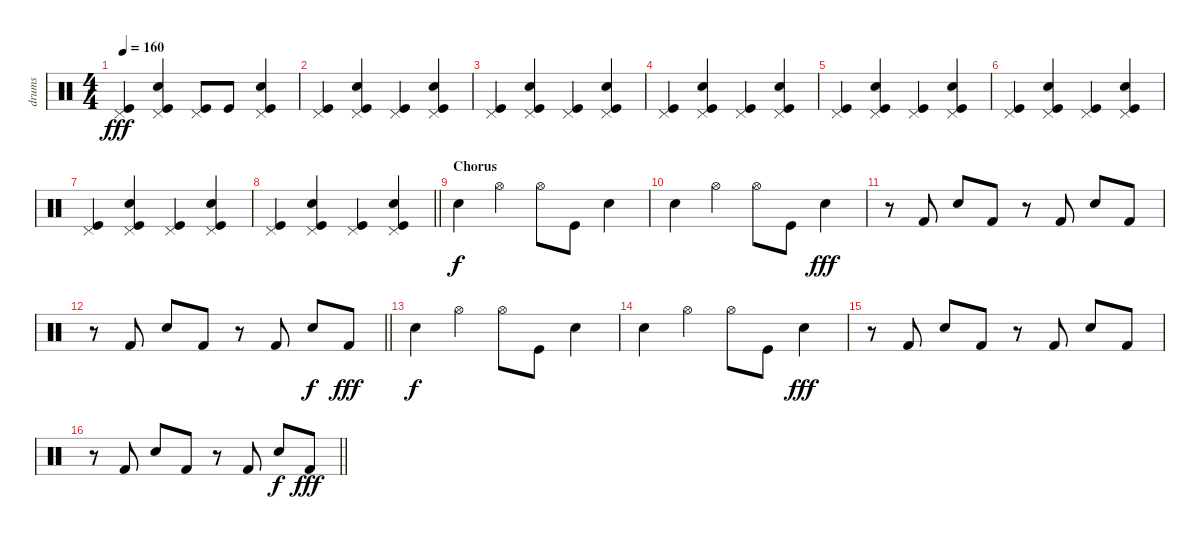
\track ("drums" "drums") {instrument percussion}
\staff {score}
\articulation defaults
\ts (4 4)
\tempo 160
\clef neutral
\ks c
("Pedal Hi-Hat (hit)" "Kick (hit)").4{dy fff} ("Snare (hit) 2" "Pedal Hi-Hat (hit)" "Kick (hit)").4 ("Pedal Hi-Hat (hit)" "Kick (hit)").8 "Kick (hit)".8 ("Snare (hit) 2" "Pedal Hi-Hat (hit)" "Kick (hit)").4 |
("Pedal Hi-Hat (hit)" "Kick (hit)").4 ("Snare (hit) 2" "Pedal Hi-Hat (hit)" "Kick (hit)").4 ("Pedal Hi-Hat (hit)" "Kick (hit)").4 ("Snare (hit) 2" "Pedal Hi-Hat (hit)" "Kick (hit)").4 |
("Pedal Hi-Hat (hit)" "Kick (hit)").4 ("Snare (hit) 2" "Pedal Hi-Hat (hit)" "Kick (hit)").4 ("Pedal Hi-Hat (hit)" "Kick (hit)").4 ("Snare (hit) 2" "Pedal Hi-Hat (hit)" "Kick (hit)").4 |
("Pedal Hi-Hat (hit)" "Kick (hit)").4 ("Snare (hit) 2" "Pedal Hi-Hat (hit)" "Kick (hit)").4 ("Pedal Hi-Hat (hit)" "Kick (hit)").4 ("Snare (hit) 2" "Pedal Hi-Hat (hit)" "Kick (hit)").4 |
("Pedal Hi-Hat (hit)" "Kick (hit)").4 ("Snare (hit) 2" "Pedal Hi-Hat (hit)" "Kick (hit)").4 ("Pedal Hi-Hat (hit)" "Kick (hit)").4 ("Snare (hit) 2" "Pedal Hi-Hat (hit)" "Kick (hit)").4 |
("Pedal Hi-Hat (hit)" "Kick (hit)").4 ("Snare (hit) 2" "Pedal Hi-Hat (hit)" "Kick (hit)").4 ("Pedal Hi-Hat (hit)" "Kick (hit)").4 ("Snare (hit) 2" "Pedal Hi-Hat (hit)" "Kick (hit)").4 |
("Pedal Hi-Hat (hit)" "Kick (hit)").4 ("Snare (hit) 2" "Pedal Hi-Hat (hit)" "Kick (hit)").4 ("Pedal Hi-Hat (hit)" "Kick (hit)").4 ("Snare (hit) 2" "Pedal Hi-Hat (hit)" "Kick (hit)").4 |
\barLineRight lightlight
("Pedal Hi-Hat (hit)" "Kick (hit)").4 ("Snare (hit) 2" "Pedal Hi-Hat (hit)" "Kick (hit)").4 ("Pedal Hi-Hat (hit)" "Kick (hit)").4 ("Snare (hit) 2" "Pedal Hi-Hat (hit)" "Kick (hit)").4 |
\section ("" "Chorus")
"Snare (hit) 2".4{dy f} "Hi-Hat (open)".4 "Hi-Hat (open)".8 "Kick (hit)".8 "Snare (hit) 2".4 |
"Snare (hit) 2".4 "Hi-Hat (open)".4 "Hi-Hat (open)".8 "Kick (hit)".8 "Snare (hit) 2".4{dy fff} |
r.8 "Kick (hit) 2".8 "Snare (hit) 2".8 "Kick (hit) 2".8 r.8 "Kick (hit) 2".8 "Snare (hit) 2".8 "Kick (hit) 2".8 |
\barLineRight lightlight
r.8 "Kick (hit) 2".8 "Snare (hit) 2".8 "Kick (hit) 2".8 r.8 "Kick (hit) 2".8 "Snare (hit) 2".8{dy f} "Kick (hit) 2".8{dy fff} |
"Snare (hit) 2".4{dy f} "Hi-Hat (open)".4 "Hi-Hat (open)".8 "Kick (hit)".8 "Snare (hit) 2".4 |
"Snare (hit) 2".4 "Hi-Hat (open)".4 "Hi-Hat (open)".8 "Kick (hit)".8 "Snare (hit) 2".4{dy fff} |
r.8 "Kick (hit) 2".8 "Snare (hit) 2".8 "Kick (hit) 2".8 r.8 "Kick (hit) 2".8 "Snare (hit) 2".8 "Kick (hit) 2".8 |
\barLineRight lightlight
r.8 "Kick (hit) 2".8 "Snare (hit) 2".8 "Kick (hit) 2".8 r.8 "Kick (hit) 2".8 "Snare (hit) 2".8{dy f} "Kick (hit) 2".8{dy fff}
